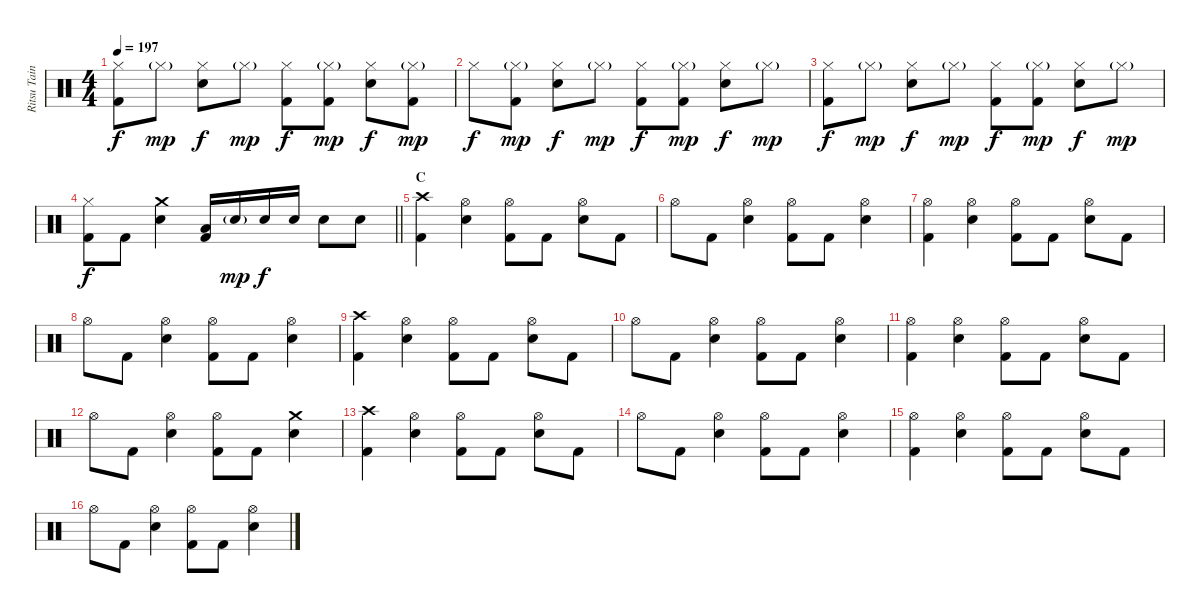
\track ("Ritsu Tainaka" "Ritsu Tain") {instrument percussion}
\staff {score}
\articulation defaults
\ts (4 4)
\tempo 197
\clef neutral
\ks c
("Hi-Hat (closed)" "Kick (hit) 2").8{dy f} "Hi-Hat (closed)"{g}.8{dy mp} ("Hi-Hat (closed)" "Electric Snare (hit)").8{dy f} "Hi-Hat (closed)"{g}.8{dy mp} ("Hi-Hat (closed)" "Kick (hit) 2").8{dy f} ("Hi-Hat (closed)"{g} "Kick (hit) 2").8{dy mp} ("Hi-Hat (closed)" "Electric Snare (hit)").8{dy f} ("Hi-Hat (closed)"{g} "Kick (hit) 2").8{dy mp} |
"Hi-Hat (closed)".8{dy f} ("Hi-Hat (closed)"{g} "Kick (hit) 2").8{dy mp} ("Hi-Hat (closed)" "Electric Snare (hit)").8{dy f} "Hi-Hat (closed)"{g}.8{dy mp} ("Hi-Hat (closed)" "Kick (hit) 2").8{dy f} ("Hi-Hat (closed)"{g} "Kick (hit) 2").8{dy mp} ("Hi-Hat (closed)" "Electric Snare (hit)").8{dy f} "Hi-Hat (closed)"{g}.8{dy mp} |
("Hi-Hat (closed)" "Kick (hit) 2").8{dy f} "Hi-Hat (closed)"{g}.8{dy mp} ("Hi-Hat (closed)" "Electric Snare (hit)").8{dy f} "Hi-Hat (closed)"{g}.8{dy mp} ("Hi-Hat (closed)" "Kick (hit) 2").8{dy f} ("Hi-Hat (closed)"{g} "Kick (hit) 2").8{dy mp} ("Hi-Hat (closed)" "Electric Snare (hit)").8{dy f} "Hi-Hat (closed)"{g}.8{dy mp} |
\barLineRight lightlight
("Hi-Hat (closed)" "Kick (hit) 2").8{dy f} "Kick (hit) 2".8 ("Crash medium (hit)" "Electric Snare (hit)").4 ("Low Tom (hit)" "Kick (hit) 2").16 "Electric Snare (hit)"{g}.16{dy mp} "Electric Snare (hit)".16{dy f} "Electric Snare (hit)".16 "Electric Snare (hit)".8 "Electric Snare (hit)".8 |
\section ("" "C")
("Crash high (hit)" "Kick (hit) 2").4 ("Hi-Hat (open)" "Electric Snare (hit)").4 ("Hi-Hat (open)" "Kick (hit) 2").8 "Kick (hit) 2".8 ("Hi-Hat (open)" "Electric Snare (hit)").8 "Kick (hit) 2".8 |
"Hi-Hat (open)".8 "Kick (hit) 2".8 ("Hi-Hat (open)" "Electric Snare (hit)").4 ("Hi-Hat (open)" "Kick (hit) 2").8 "Kick (hit) 2".8 ("Hi-Hat (open)" "Electric Snare (hit)").4 |
("Hi-Hat (open)" "Kick (hit) 2").4 ("Hi-Hat (open)" "Electric Snare (hit)").4 ("Hi-Hat (open)" "Kick (hit) 2").8 "Kick (hit) 2".8 ("Hi-Hat (open)" "Electric Snare (hit)").8 "Kick (hit) 2".8 |
"Hi-Hat (open)".8 "Kick (hit) 2".8 ("Hi-Hat (open)" "Electric Snare (hit)").4 ("Hi-Hat (open)" "Kick (hit) 2").8 "Kick (hit) 2".8 ("Hi-Hat (open)" "Electric Snare (hit)").4 |
("Crash high (hit)" "Kick (hit) 2").4 ("Hi-Hat (open)" "Electric Snare (hit)").4 ("Hi-Hat (open)" "Kick (hit) 2").8 "Kick (hit) 2".8 ("Hi-Hat (open)" "Electric Snare (hit)").8 "Kick (hit) 2".8 |
"Hi-Hat (open)".8 "Kick (hit) 2".8 ("Hi-Hat (open)" "Electric Snare (hit)").4 ("Hi-Hat (open)" "Kick (hit) 2").8 "Kick (hit) 2".8 ("Hi-Hat (open)" "Electric Snare (hit)").4 |
("Hi-Hat (open)" "Kick (hit) 2").4 ("Hi-Hat (open)" "Electric Snare (hit)").4 ("Hi-Hat (open)" "Kick (hit) 2").8 "Kick (hit) 2".8 ("Hi-Hat (open)" "Electric Snare (hit)").8 "Kick (hit) 2".8 |
"Hi-Hat (open)".8 "Kick (hit) 2".8 ("Hi-Hat (open)" "Electric Snare (hit)").4 ("Hi-Hat (open)" "Kick (hit) 2").8 "Kick (hit) 2".8 ("Crash medium (hit)" "Electric Snare (hit)").4 |
("Crash high (hit)" "Kick (hit) 2").4 ("Hi-Hat (open)" "Electric Snare (hit)").4 ("Hi-Hat (open)" "Kick (hit) 2").8 "Kick (hit) 2".8 ("Hi-Hat (open)" "Electric Snare (hit)").8 "Kick (hit) 2".8 |
"Hi-Hat (open)".8 "Kick (hit) 2".8 ("Hi-Hat (open)" "Electric Snare (hit)").4 ("Hi-Hat (open)" "Kick (hit) 2").8 "Kick (hit) 2".8 ("Hi-Hat (open)" "Electric Snare (hit)").4 |
("Hi-Hat (open)" "Kick (hit) 2").4 ("Hi-Hat (open)" "Electric Snare (hit)").4 ("Hi-Hat (open)" "Kick (hit) 2").8 "Kick (hit) 2".8 ("Hi-Hat (open)" "Electric Snare (hit)").8 "Kick (hit) 2".8 |
"Hi-Hat (open)".8 "Kick (hit) 2".8 ("Hi-Hat (open)" "Electric Snare (hit)").4 ("Hi-Hat (open)" "Kick (hit) 2").8 "Kick (hit) 2".8 ("Hi-Hat (open)" "Electric Snare (hit)").4
